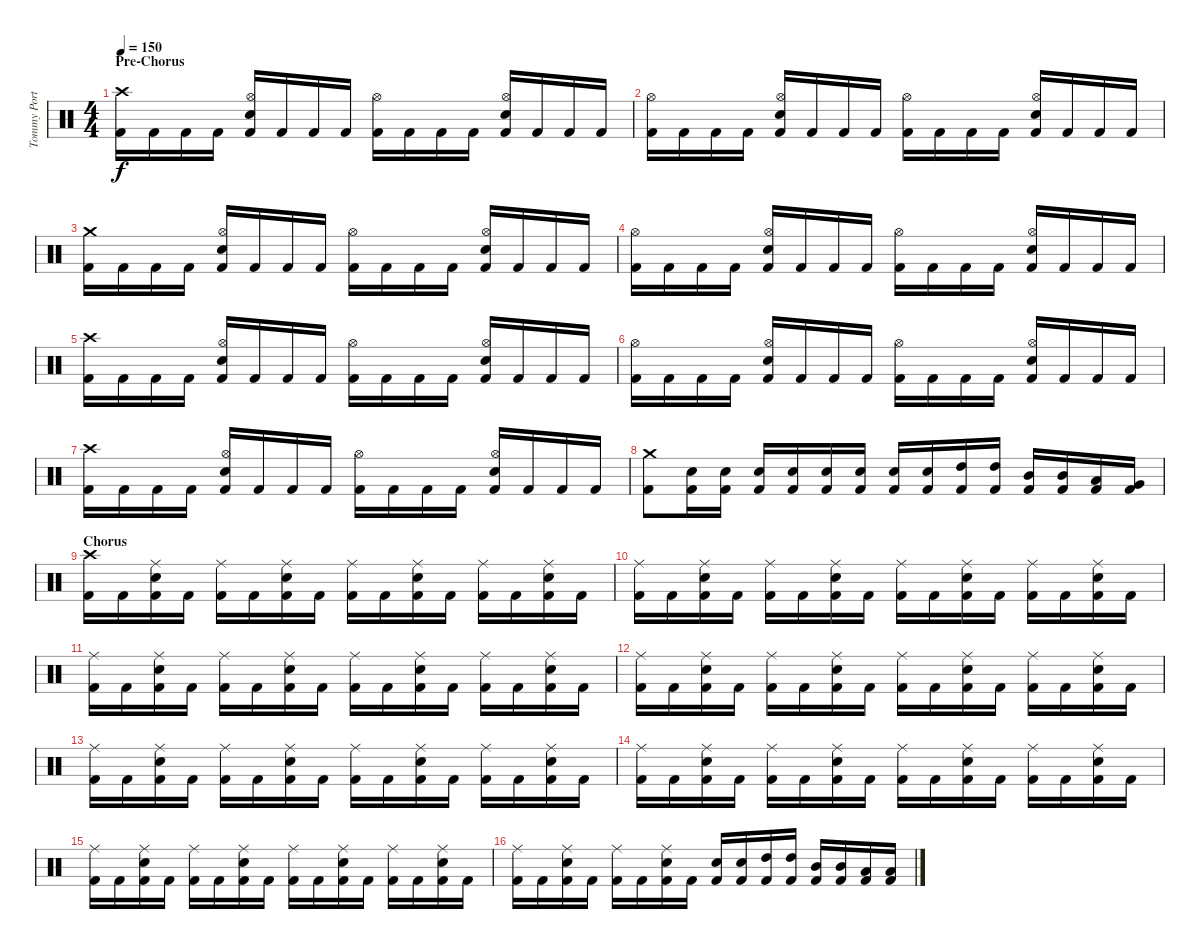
\track ("Tommy Portino - Drums" "Tommy Port") {instrument percussion}
\staff {score}
\articulation defaults
\ts (4 4)
\section ("" "Pre-Chorus")
\tempo 150
\clef neutral
\ks c
("Crash high (hit)" "Kick (hit) 2").16{dy f} "Kick (hit) 2".16 "Kick (hit) 2".16 "Kick (hit) 2".16 ("Hi-Hat (open)" "Electric Snare (hit)" "Kick (hit) 2").16 "Kick (hit) 2".16 "Kick (hit) 2".16 "Kick (hit) 2".16 ("Hi-Hat (open)" "Kick (hit) 2").16 "Kick (hit) 2".16 "Kick (hit) 2".16 "Kick (hit) 2".16 ("Hi-Hat (open)" "Electric Snare (hit)" "Kick (hit) 2").16 "Kick (hit) 2".16 "Kick (hit) 2".16 "Kick (hit) 2".16 |
("Hi-Hat (open)" "Kick (hit) 2").16 "Kick (hit) 2".16 "Kick (hit) 2".16 "Kick (hit) 2".16 ("Hi-Hat (open)" "Electric Snare (hit)" "Kick (hit) 2").16 "Kick (hit) 2".16 "Kick (hit) 2".16 "Kick (hit) 2".16 ("Hi-Hat (open)" "Kick (hit) 2").16 "Kick (hit) 2".16 "Kick (hit) 2".16 "Kick (hit) 2".16 ("Hi-Hat (open)" "Electric Snare (hit)" "Kick (hit) 2").16 "Kick (hit) 2".16 "Kick (hit) 2".16 "Kick (hit) 2".16 |
("Crash medium (hit)" "Kick (hit) 2").16 "Kick (hit) 2".16 "Kick (hit) 2".16 "Kick (hit) 2".16 ("Hi-Hat (open)" "Electric Snare (hit)" "Kick (hit) 2").16 "Kick (hit) 2".16 "Kick (hit) 2".16 "Kick (hit) 2".16 ("Hi-Hat (open)" "Kick (hit) 2").16 "Kick (hit) 2".16 "Kick (hit) 2".16 "Kick (hit) 2".16 ("Hi-Hat (open)" "Electric Snare (hit)" "Kick (hit) 2").16 "Kick (hit) 2".16 "Kick (hit) 2".16 "Kick (hit) 2".16 |
("Hi-Hat (open)" "Kick (hit) 2").16 "Kick (hit) 2".16 "Kick (hit) 2".16 "Kick (hit) 2".16 ("Hi-Hat (open)" "Electric Snare (hit)" "Kick (hit) 2").16 "Kick (hit) 2".16 "Kick (hit) 2".16 "Kick (hit) 2".16 ("Hi-Hat (open)" "Kick (hit) 2").16 "Kick (hit) 2".16 "Kick (hit) 2".16 "Kick (hit) 2".16 ("Hi-Hat (open)" "Electric Snare (hit)" "Kick (hit) 2").16 "Kick (hit) 2".16 "Kick (hit) 2".16 "Kick (hit) 2".16 |
("Crash high (hit)" "Kick (hit) 2").16 "Kick (hit) 2".16 "Kick (hit) 2".16 "Kick (hit) 2".16 ("Hi-Hat (open)" "Electric Snare (hit)" "Kick (hit) 2").16 "Kick (hit) 2".16 "Kick (hit) 2".16 "Kick (hit) 2".16 ("Hi-Hat (open)" "Kick (hit) 2").16 "Kick (hit) 2".16 "Kick (hit) 2".16 "Kick (hit) 2".16 ("Hi-Hat (open)" "Electric Snare (hit)" "Kick (hit) 2").16 "Kick (hit) 2".16 "Kick (hit) 2".16 "Kick (hit) 2".16 |
("Hi-Hat (open)" "Kick (hit) 2").16 "Kick (hit) 2".16 "Kick (hit) 2".16 "Kick (hit) 2".16 ("Hi-Hat (open)" "Electric Snare (hit)" "Kick (hit) 2").16 "Kick (hit) 2".16 "Kick (hit) 2".16 "Kick (hit) 2".16 ("Hi-Hat (open)" "Kick (hit) 2").16 "Kick (hit) 2".16 "Kick (hit) 2".16 "Kick (hit) 2".16 ("Hi-Hat (open)" "Electric Snare (hit)" "Kick (hit) 2").16 "Kick (hit) 2".16 "Kick (hit) 2".16 "Kick (hit) 2".16 |
("Crash high (hit)" "Kick (hit) 2").16 "Kick (hit) 2".16 "Kick (hit) 2".16 "Kick (hit) 2".16 ("Hi-Hat (open)" "Electric Snare (hit)" "Kick (hit) 2").16 "Kick (hit) 2".16 "Kick (hit) 2".16 "Kick (hit) 2".16 ("Hi-Hat (open)" "Kick (hit) 2").16 "Kick (hit) 2".16 "Kick (hit) 2".16 "Kick (hit) 2".16 ("Hi-Hat (open)" "Electric Snare (hit)" "Kick (hit) 2").16 "Kick (hit) 2".16 "Kick (hit) 2".16 "Kick (hit) 2".16 |
("Crash medium (hit)" "Kick (hit) 2").8 ("Electric Snare (hit)" "Kick (hit) 2").16 ("Electric Snare (hit)" "Kick (hit) 2").16 ("Electric Snare (hit)" "Kick (hit) 2").16 ("Electric Snare (hit)" "Kick (hit) 2").16 ("Electric Snare (hit)" "Kick (hit) 2").16 ("Electric Snare (hit)" "Kick (hit) 2").16 ("Electric Snare (hit)" "Kick (hit) 2").16 ("Electric Snare (hit)" "Kick (hit) 2").16 ("High Tom (hit)" "Kick (hit) 2").16 ("High Tom (hit)" "Kick (hit) 2").16 ("Mid Tom (hit)" "Kick (hit) 2").16 ("Mid Tom (hit)" "Kick (hit) 2").16 ("Low Tom (hit)" "Kick (hit) 2").16 ("Very Low Tom (hit)" "Kick (hit) 2").16 |
\section ("" "Chorus")
("Crash high (hit)" "Kick (hit) 2").16 "Kick (hit) 2".16 ("Ride (middle)" "Electric Snare (hit)" "Kick (hit) 2").16 "Kick (hit) 2".16 ("Ride (middle)" "Kick (hit) 2").16 "Kick (hit) 2".16 ("Ride (middle)" "Electric Snare (hit)" "Kick (hit) 2").16 "Kick (hit) 2".16 ("Ride (middle)" "Kick (hit) 2").16 "Kick (hit) 2".16 ("Ride (middle)" "Electric Snare (hit)" "Kick (hit) 2").16 "Kick (hit) 2".16 ("Ride (middle)" "Kick (hit) 2").16 "Kick (hit) 2".16 ("Ride (middle)" "Electric Snare (hit)" "Kick (hit) 2").16 "Kick (hit) 2".16 |
("Ride (middle)" "Kick (hit) 2").16 "Kick (hit) 2".16 ("Ride (middle)" "Electric Snare (hit)" "Kick (hit) 2").16 "Kick (hit) 2".16 ("Ride (middle)" "Kick (hit) 2").16 "Kick (hit) 2".16 ("Ride (middle)" "Electric Snare (hit)" "Kick (hit) 2").16 "Kick (hit) 2".16 ("Ride (middle)" "Kick (hit) 2").16 "Kick (hit) 2".16 ("Ride (middle)" "Electric Snare (hit)" "Kick (hit) 2").16 "Kick (hit) 2".16 ("Ride (middle)" "Kick (hit) 2").16 "Kick (hit) 2".16 ("Ride (middle)" "Electric Snare (hit)" "Kick (hit) 2").16 "Kick (hit) 2".16 |
("Ride (middle)" "Kick (hit) 2").16 "Kick (hit) 2".16 ("Ride (middle)" "Electric Snare (hit)" "Kick (hit) 2").16 "Kick (hit) 2".16 ("Ride (middle)" "Kick (hit) 2").16 "Kick (hit) 2".16 ("Ride (middle)" "Electric Snare (hit)" "Kick (hit) 2").16 "Kick (hit) 2".16 ("Ride (middle)" "Kick (hit) 2").16 "Kick (hit) 2".16 ("Ride (middle)" "Electric Snare (hit)" "Kick (hit) 2").16 "Kick (hit) 2".16 ("Ride (middle)" "Kick (hit) 2").16 "Kick (hit) 2".16 ("Ride (middle)" "Electric Snare (hit)" "Kick (hit) 2").16 "Kick (hit) 2".16 |
("Ride (middle)" "Kick (hit) 2").16 "Kick (hit) 2".16 ("Ride (middle)" "Electric Snare (hit)" "Kick (hit) 2").16 "Kick (hit) 2".16 ("Ride (middle)" "Kick (hit) 2").16 "Kick (hit) 2".16 ("Ride (middle)" "Electric Snare (hit)" "Kick (hit) 2").16 "Kick (hit) 2".16 ("Ride (middle)" "Kick (hit) 2").16 "Kick (hit) 2".16 ("Ride (middle)" "Electric Snare (hit)" "Kick (hit) 2").16 "Kick (hit) 2".16 ("Ride (middle)" "Kick (hit) 2").16 "Kick (hit) 2".16 ("Ride (middle)" "Electric Snare (hit)" "Kick (hit) 2").16 "Kick (hit) 2".16 |
("Ride (middle)" "Kick (hit) 2").16 "Kick (hit) 2".16 ("Ride (middle)" "Electric Snare (hit)" "Kick (hit) 2").16 "Kick (hit) 2".16 ("Ride (middle)" "Kick (hit) 2").16 "Kick (hit) 2".16 ("Ride (middle)" "Electric Snare (hit)" "Kick (hit) 2").16 "Kick (hit) 2".16 ("Ride (middle)" "Kick (hit) 2").16 "Kick (hit) 2".16 ("Ride (middle)" "Electric Snare (hit)" "Kick (hit) 2").16 "Kick (hit) 2".16 ("Ride (middle)" "Kick (hit) 2").16 "Kick (hit) 2".16 ("Ride (middle)" "Electric Snare (hit)" "Kick (hit) 2").16 "Kick (hit) 2".16 |
("Ride (middle)" "Kick (hit) 2").16 "Kick (hit) 2".16 ("Ride (middle)" "Electric Snare (hit)" "Kick (hit) 2").16 "Kick (hit) 2".16 ("Ride (middle)" "Kick (hit) 2").16 "Kick (hit) 2".16 ("Ride (middle)" "Electric Snare (hit)" "Kick (hit) 2").16 "Kick (hit) 2".16 ("Ride (middle)" "Kick (hit) 2").16 "Kick (hit) 2".16 ("Ride (middle)" "Electric Snare (hit)" "Kick (hit) 2").16 "Kick (hit) 2".16 ("Ride (middle)" "Kick (hit) 2").16 "Kick (hit) 2".16 ("Ride (middle)" "Electric Snare (hit)" "Kick (hit) 2").16 "Kick (hit) 2".16 |
("Ride (middle)" "Kick (hit) 2").16 "Kick (hit) 2".16 ("Ride (middle)" "Electric Snare (hit)" "Kick (hit) 2").16 "Kick (hit) 2".16 ("Ride (middle)" "Kick (hit) 2").16 "Kick (hit) 2".16 ("Ride (middle)" "Electric Snare (hit)" "Kick (hit) 2").16 "Kick (hit) 2".16 ("Ride (middle)" "Kick (hit) 2").16 "Kick (hit) 2".16 ("Ride (middle)" "Electric Snare (hit)" "Kick (hit) 2").16 "Kick (hit) 2".16 ("Ride (middle)" "Kick (hit) 2").16 "Kick (hit) 2".16 ("Ride (middle)" "Electric Snare (hit)" "Kick (hit) 2").16 "Kick (hit) 2".16 |
("Ride (middle)" "Kick (hit) 2").16 "Kick (hit) 2".16 ("Ride (middle)" "Electric Snare (hit)" "Kick (hit) 2").16 "Kick (hit) 2".16 ("Ride (middle)" "Kick (hit) 2").16 "Kick (hit) 2".16 ("Ride (middle)" "Electric Snare (hit)" "Kick (hit) 2").16 "Kick (hit) 2".16 ("Electric Snare (hit)" "Kick (hit) 2").16 ("Electric Snare (hit)" "Kick (hit) 2").16 ("High Tom (hit)" "Kick (hit) 2").16 ("High Tom (hit)" "Kick (hit) 2").16 ("Mid Tom (hit)" "Kick (hit) 2").16 ("Mid Tom (hit)" "Kick (hit) 2").16 ("Low Tom (hit)" "Kick (hit) 2").16 ("Low Tom (hit)" "Kick (hit) 2").16
